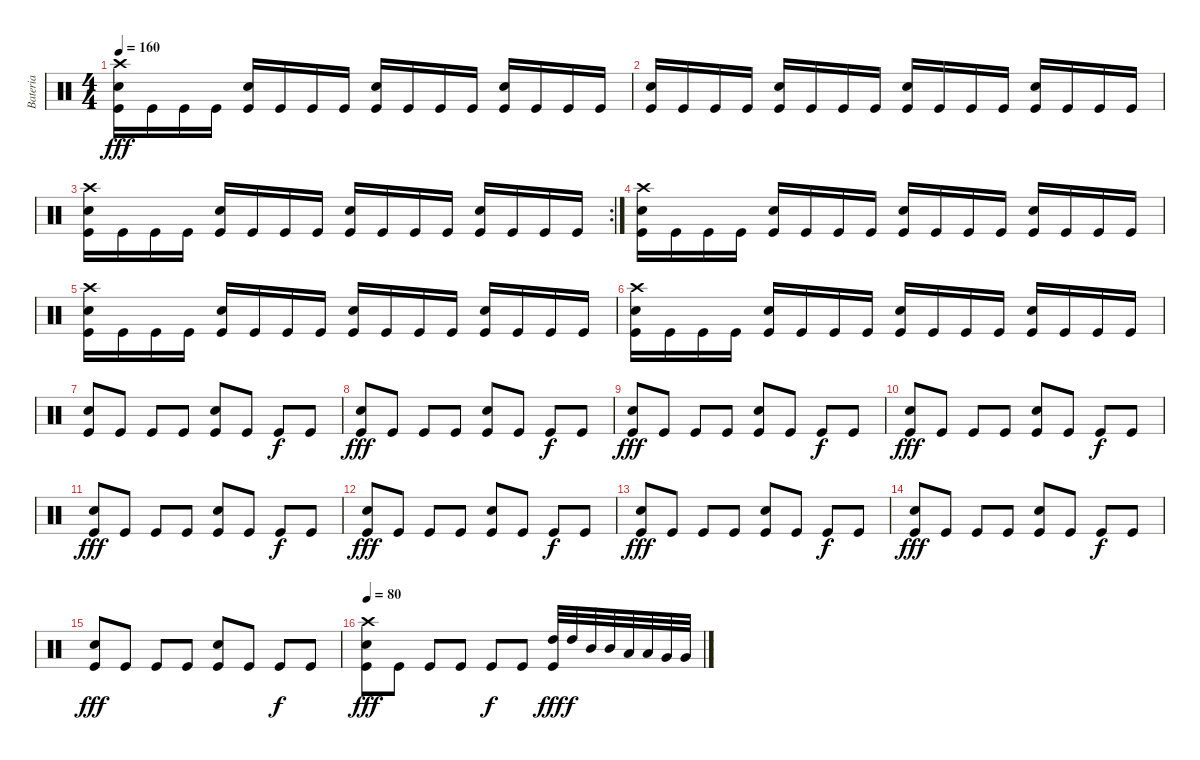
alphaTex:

\track ("Bateria" "Bateria") {instrument percussion}
\staff {score}
\articulation defaults
\ts (4 4)
\tempo 160
\clef neutral
\ks c
("Crash high (hit)" "Electric Snare (hit)" "Kick (hit)").16{dy fff} "Kick (hit)".16 "Kick (hit)".16 "Kick (hit)".16 ("Electric Snare (hit)" "Kick (hit)").16 "Kick (hit)".16 "Kick (hit)".16 "Kick (hit)".16 ("Electric Snare (hit)" "Kick (hit)").16 "Kick (hit)".16 "Kick (hit)".16 "Kick (hit)".16 ("Electric Snare (hit)" "Kick (hit)").16 "Kick (hit)".16 "Kick (hit)".16 "Kick (hit)".16 |
("Electric Snare (hit)" "Kick (hit)").16 "Kick (hit)".16 "Kick (hit)".16 "Kick (hit)".16 ("Electric Snare (hit)" "Kick (hit)").16 "Kick (hit)".16 "Kick (hit)".16 "Kick (hit)".16 ("Electric Snare (hit)" "Kick (hit)").16 "Kick (hit)".16 "Kick (hit)".16 "Kick (hit)".16 ("Electric Snare (hit)" "Kick (hit)").16 "Kick (hit)".16 "Kick (hit)".16 "Kick (hit)".16 |
\rc 2
("Crash high (hit)" "Electric Snare (hit)" "Kick (hit)").16 "Kick (hit)".16 "Kick (hit)".16 "Kick (hit)".16 ("Electric Snare (hit)" "Kick (hit)").16 "Kick (hit)".16 "Kick (hit)".16 "Kick (hit)".16 ("Electric Snare (hit)" "Kick (hit)").16 "Kick (hit)".16 "Kick (hit)".16 "Kick (hit)".16 ("Electric Snare (hit)" "Kick (hit)").16 "Kick (hit)".16 "Kick (hit)".16 "Kick (hit)".16 |
("Crash high (hit)" "Electric Snare (hit)" "Kick (hit)").16 "Kick (hit)".16 "Kick (hit)".16 "Kick (hit)".16 ("Electric Snare (hit)" "Kick (hit)").16 "Kick (hit)".16 "Kick (hit)".16 "Kick (hit)".16 ("Electric Snare (hit)" "Kick (hit)").16 "Kick (hit)".16 "Kick (hit)".16 "Kick (hit)".16 ("Electric Snare (hit)" "Kick (hit)").16 "Kick (hit)".16 "Kick (hit)".16 "Kick (hit)".16 |
("Crash high (hit)" "Electric Snare (hit)" "Kick (hit)").16 "Kick (hit)".16 "Kick (hit)".16 "Kick (hit)".16 ("Electric Snare (hit)" "Kick (hit)").16 "Kick (hit)".16 "Kick (hit)".16 "Kick (hit)".16 ("Electric Snare (hit)" "Kick (hit)").16 "Kick (hit)".16 "Kick (hit)".16 "Kick (hit)".16 ("Electric Snare (hit)" "Kick (hit)").16 "Kick (hit)".16 "Kick (hit)".16 "Kick (hit)".16 |
("Crash high (hit)" "Electric Snare (hit)" "Kick (hit)").16 "Kick (hit)".16 "Kick (hit)".16 "Kick (hit)".16 ("Electric Snare (hit)" "Kick (hit)").16 "Kick (hit)".16 "Kick (hit)".16 "Kick (hit)".16 ("Electric Snare (hit)" "Kick (hit)").16 "Kick (hit)".16 "Kick (hit)".16 "Kick (hit)".16 ("Electric Snare (hit)" "Kick (hit)").16 "Kick (hit)".16 "Kick (hit)".16 "Kick (hit)".16 |
("Electric Snare (hit)" "Kick (hit)").8 "Kick (hit)".8 "Kick (hit)".8 "Kick (hit)".8 ("Electric Snare (hit)" "Kick (hit)").8 "Kick (hit)".8 "Kick (hit)".8{dy f} "Kick (hit)".8 |
("Electric Snare (hit)" "Kick (hit)").8{dy fff} "Kick (hit)".8 "Kick (hit)".8 "Kick (hit)".8 ("Electric Snare (hit)" "Kick (hit)").8 "Kick (hit)".8 "Kick (hit)".8{dy f} "Kick (hit)".8 |
("Electric Snare (hit)" "Kick (hit)").8{dy fff} "Kick (hit)".8 "Kick (hit)".8 "Kick (hit)".8 ("Electric Snare (hit)" "Kick (hit)").8 "Kick (hit)".8 "Kick (hit)".8{dy f} "Kick (hit)".8 |
("Electric Snare (hit)" "Kick (hit)").8{dy fff} "Kick (hit)".8 "Kick (hit)".8 "Kick (hit)".8 ("Electric Snare (hit)" "Kick (hit)").8 "Kick (hit)".8 "Kick (hit)".8{dy f} "Kick (hit)".8 |
("Electric Snare (hit)" "Kick (hit)").8{dy fff} "Kick (hit)".8 "Kick (hit)".8 "Kick (hit)".8 ("Electric Snare (hit)" "Kick (hit)").8 "Kick (hit)".8 "Kick (hit)".8{dy f} "Kick (hit)".8 |
("Electric Snare (hit)" "Kick (hit)").8{dy fff} "Kick (hit)".8 "Kick (hit)".8 "Kick (hit)".8 ("Electric Snare (hit)" "Kick (hit)").8 "Kick (hit)".8 "Kick (hit)".8{dy f} "Kick (hit)".8 |
("Electric Snare (hit)" "Kick (hit)").8{dy fff} "Kick (hit)".8 "Kick (hit)".8 "Kick (hit)".8 ("Electric Snare (hit)" "Kick (hit)").8 "Kick (hit)".8 "Kick (hit)".8{dy f} "Kick (hit)".8 |
("Electric Snare (hit)" "Kick (hit)").8{dy fff} "Kick (hit)".8 "Kick (hit)".8 "Kick (hit)".8 ("Electric Snare (hit)" "Kick (hit)").8 "Kick (hit)".8 "Kick (hit)".8{dy f} "Kick (hit)".8 |
("Electric Snare (hit)" "Kick (hit)").8{dy fff} "Kick (hit)".8 "Kick (hit)".8 "Kick (hit)".8 ("Electric Snare (hit)" "Kick (hit)").8 "Kick (hit)".8 "Kick (hit)".8{dy f} "Kick (hit)".8 |
\tempo 80
("Crash high (hit)" "Electric Snare (hit)" "Kick (hit)").8{dy fff} "Kick (hit)".8 "Kick (hit)".8 "Kick (hit)".8 "Kick (hit)".8{dy f} "Kick (hit)".8 ("High Tom (hit)" "Kick (hit)").32{dy fff} "High Tom (hit)".32{dy f} "Mid Tom (hit)".32 "Mid Tom (hit)".32 "Low Tom (hit)".32 "Low Tom (hit)".32 "Very Low Tom (hit)".32 "Very Low Tom (hit)".32
